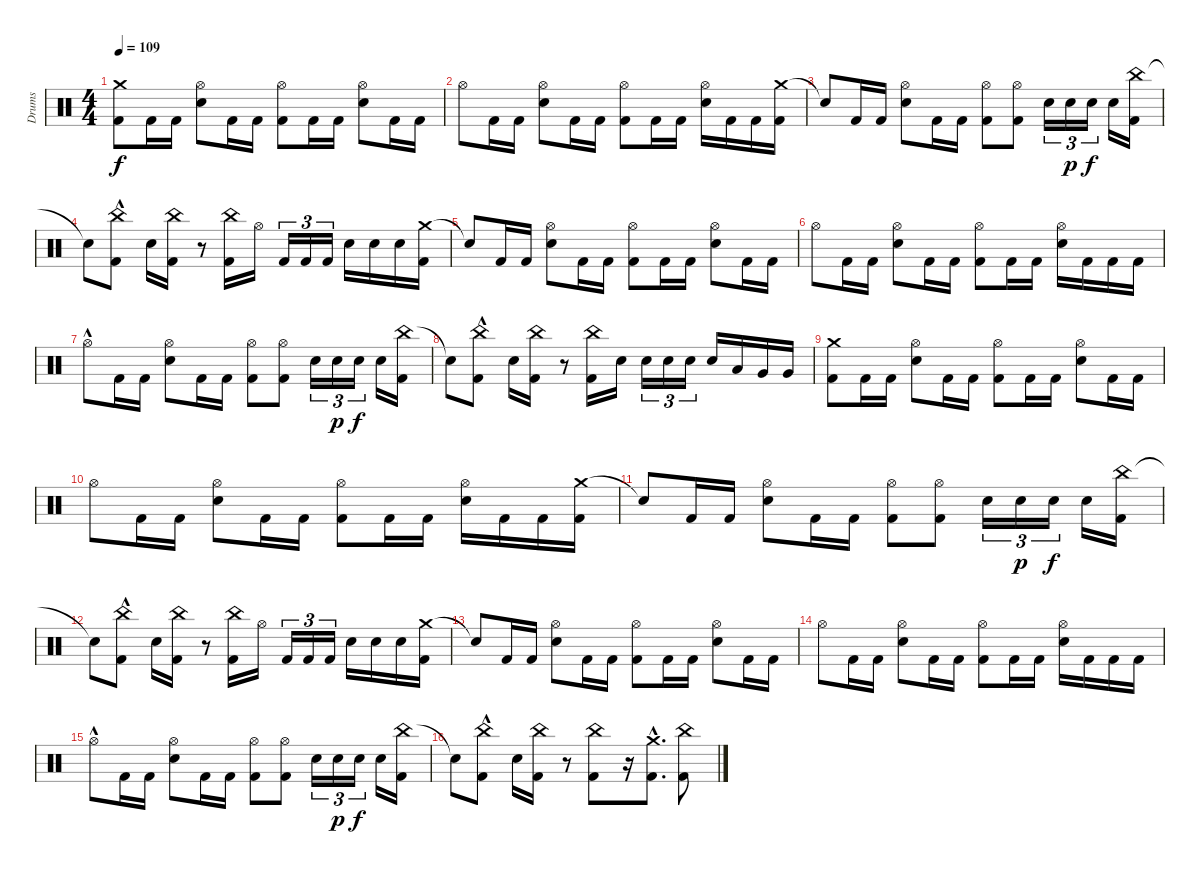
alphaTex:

\track ("Drums" "Drums") {instrument percussion}
\staff {score}
\articulation defaults
\ts (4 4)
\tempo 109
\clef neutral
\ks c
("Kick (hit) 2" "Crash medium (hit)").8{dy f} "Kick (hit) 2".16 "Kick (hit) 2".16 ("Electric Snare (hit)" "Hi-Hat (open)").8 "Kick (hit) 2".16 "Kick (hit) 2".16 ("Kick (hit) 2" "Hi-Hat (open)").8 "Kick (hit) 2".16 "Kick (hit) 2".16 ("Electric Snare (hit)" "Hi-Hat (open)").8 "Kick (hit) 2".16 "Kick (hit) 2".16 |
"Hi-Hat (open)".8 "Kick (hit) 2".16 "Kick (hit) 2".16 ("Electric Snare (hit)" "Hi-Hat (open)").8 "Kick (hit) 2".16 "Kick (hit) 2".16 ("Kick (hit) 2" "Hi-Hat (open)").8 "Kick (hit) 2".16 "Kick (hit) 2".16 ("Electric Snare (hit)" "Hi-Hat (open)").16 "Kick (hit) 2".16 "Kick (hit) 2".16 ("Crash medium (hit)" "Kick (hit) 2").16 |
"Snare (hit)"{t}.8 "Kick (hit) 2".16 "Kick (hit) 2".16 ("Electric Snare (hit)" "Hi-Hat (open)").8 "Kick (hit) 2".16 "Kick (hit) 2".16 ("Kick (hit) 2" "Hi-Hat (open)").8 ("Kick (hit) 2" "Hi-Hat (open)").8 "Electric Snare (hit)".16{tu (3 2)} "Electric Snare (hit)".16{tu (3 2) dy p} "Electric Snare (hit)".16{tu (3 2) dy f} "Electric Snare (hit)".16 ("China (hit)" "Kick (hit) 2").16 |
"Snare (hit)"{t}.8 ("China (hit)"{hac} "Kick (hit) 2"{hac}).8 "Electric Snare (hit)".16 ("China (hit)" "Kick (hit) 2").16 r.8 ("China (hit)" "Kick (hit) 2").16 "Hi-Hat (open)".16 "Kick (hit) 2".16{tu (3 2)} "Kick (hit) 2".16{tu (3 2)} "Kick (hit) 2".16{tu (3 2)} "Electric Snare (hit)".16 "Electric Snare (hit)".16 "Electric Snare (hit)".16 ("Crash medium (hit)" "Kick (hit) 2").16 |
"Snare (hit)"{t}.8 "Kick (hit) 2".16 "Kick (hit) 2".16 ("Electric Snare (hit)" "Hi-Hat (open)").8 "Kick (hit) 2".16 "Kick (hit) 2".16 ("Kick (hit) 2" "Hi-Hat (open)").8 "Kick (hit) 2".16 "Kick (hit) 2".16 ("Electric Snare (hit)" "Hi-Hat (open)").8 "Kick (hit) 2".16 "Kick (hit) 2".16 |
"Hi-Hat (open)".8 "Kick (hit) 2".16 "Kick (hit) 2".16 ("Electric Snare (hit)" "Hi-Hat (open)").8 "Kick (hit) 2".16 "Kick (hit) 2".16 ("Kick (hit) 2" "Hi-Hat (open)").8 "Kick (hit) 2".16 "Kick (hit) 2".16 ("Electric Snare (hit)" "Hi-Hat (open)").16 "Kick (hit) 2".16 "Kick (hit) 2".16 "Kick (hit) 2".16 |
"Hi-Hat (open)"{hac}.8 "Kick (hit) 2".16 "Kick (hit) 2".16 ("Electric Snare (hit)" "Hi-Hat (open)").8 "Kick (hit) 2".16 "Kick (hit) 2".16 ("Kick (hit) 2" "Hi-Hat (open)").8 ("Kick (hit) 2" "Hi-Hat (open)").8 "Electric Snare (hit)".16{tu (3 2)} "Electric Snare (hit)".16{tu (3 2) dy p} "Electric Snare (hit)".16{tu (3 2) dy f} "Electric Snare (hit)".16 ("China (hit)" "Kick (hit) 2").16 |
"Snare (hit)"{t}.8 ("China (hit)"{hac} "Kick (hit) 2"{hac}).8 "Electric Snare (hit)".16 ("China (hit)" "Kick (hit) 2").16 r.8 ("China (hit)" "Kick (hit) 2").16 "Electric Snare (hit)".16 "Electric Snare (hit)".16{tu (3 2)} "Electric Snare (hit)".16{tu (3 2)} "Electric Snare (hit)".16{tu (3 2)} "Electric Snare (hit)".16 "Low Tom (hit)".16 "Very Low Tom (hit)".16 "Very Low Tom (hit)".16 |
("Kick (hit) 2" "Crash medium (hit)").8 "Kick (hit) 2".16 "Kick (hit) 2".16 ("Electric Snare (hit)" "Hi-Hat (open)").8 "Kick (hit) 2".16 "Kick (hit) 2".16 ("Kick (hit) 2" "Hi-Hat (open)").8 "Kick (hit) 2".16 "Kick (hit) 2".16 ("Electric Snare (hit)" "Hi-Hat (open)").8 "Kick (hit) 2".16 "Kick (hit) 2".16 |
"Hi-Hat (open)".8 "Kick (hit) 2".16 "Kick (hit) 2".16 ("Electric Snare (hit)" "Hi-Hat (open)").8 "Kick (hit) 2".16 "Kick (hit) 2".16 ("Kick (hit) 2" "Hi-Hat (open)").8 "Kick (hit) 2".16 "Kick (hit) 2".16 ("Electric Snare (hit)" "Hi-Hat (open)").16 "Kick (hit) 2".16 "Kick (hit) 2".16 ("Crash medium (hit)" "Kick (hit) 2").16 |
"Snare (hit)"{t}.8 "Kick (hit) 2".16 "Kick (hit) 2".16 ("Electric Snare (hit)" "Hi-Hat (open)").8 "Kick (hit) 2".16 "Kick (hit) 2".16 ("Kick (hit) 2" "Hi-Hat (open)").8 ("Kick (hit) 2" "Hi-Hat (open)").8 "Electric Snare (hit)".16{tu (3 2)} "Electric Snare (hit)".16{tu (3 2) dy p} "Electric Snare (hit)".16{tu (3 2) dy f} "Electric Snare (hit)".16 ("China (hit)" "Kick (hit) 2").16 |
"Snare (hit)"{t}.8 ("China (hit)"{hac} "Kick (hit) 2"{hac}).8 "Electric Snare (hit)".16 ("China (hit)" "Kick (hit) 2").16 r.8 ("China (hit)" "Kick (hit) 2").16 "Hi-Hat (open)".16 "Kick (hit) 2".16{tu (3 2)} "Kick (hit) 2".16{tu (3 2)} "Kick (hit) 2".16{tu (3 2)} "Electric Snare (hit)".16 "Electric Snare (hit)".16 "Electric Snare (hit)".16 ("Crash medium (hit)" "Kick (hit) 2").16 |
"Snare (hit)"{t}.8 "Kick (hit) 2".16 "Kick (hit) 2".16 ("Electric Snare (hit)" "Hi-Hat (open)").8 "Kick (hit) 2".16 "Kick (hit) 2".16 ("Kick (hit) 2" "Hi-Hat (open)").8 "Kick (hit) 2".16 "Kick (hit) 2".16 ("Electric Snare (hit)" "Hi-Hat (open)").8 "Kick (hit) 2".16 "Kick (hit) 2".16 |
"Hi-Hat (open)".8 "Kick (hit) 2".16 "Kick (hit) 2".16 ("Electric Snare (hit)" "Hi-Hat (open)").8 "Kick (hit) 2".16 "Kick (hit) 2".16 ("Kick (hit) 2" "Hi-Hat (open)").8 "Kick (hit) 2".16 "Kick (hit) 2".16 ("Electric Snare (hit)" "Hi-Hat (open)").16 "Kick (hit) 2".16 "Kick (hit) 2".16 "Kick (hit) 2".16 |
"Hi-Hat (open)"{hac}.8 "Kick (hit) 2".16 "Kick (hit) 2".16 ("Electric Snare (hit)" "Hi-Hat (open)").8 "Kick (hit) 2".16 "Kick (hit) 2".16 ("Kick (hit) 2" "Hi-Hat (open)").8 ("Kick (hit) 2" "Hi-Hat (open)").8 "Electric Snare (hit)".16{tu (3 2)} "Electric Snare (hit)".16{tu (3 2) dy p} "Electric Snare (hit)".16{tu (3 2) dy f} "Electric Snare (hit)".16 ("China (hit)" "Kick (hit) 2").16 |
"Snare (hit)"{t}.8 ("China (hit)"{hac} "Kick (hit) 2"{hac}).8 "Electric Snare (hit)".16 ("China (hit)" "Kick (hit) 2").16 r.8 ("Kick (hit) 2" "China (hit)").8 r.16 ("Crash medium (hit)"{hac} "Kick (hit) 2"{hac}).8{d} ("China (hit)" "Kick (hit) 2").8
